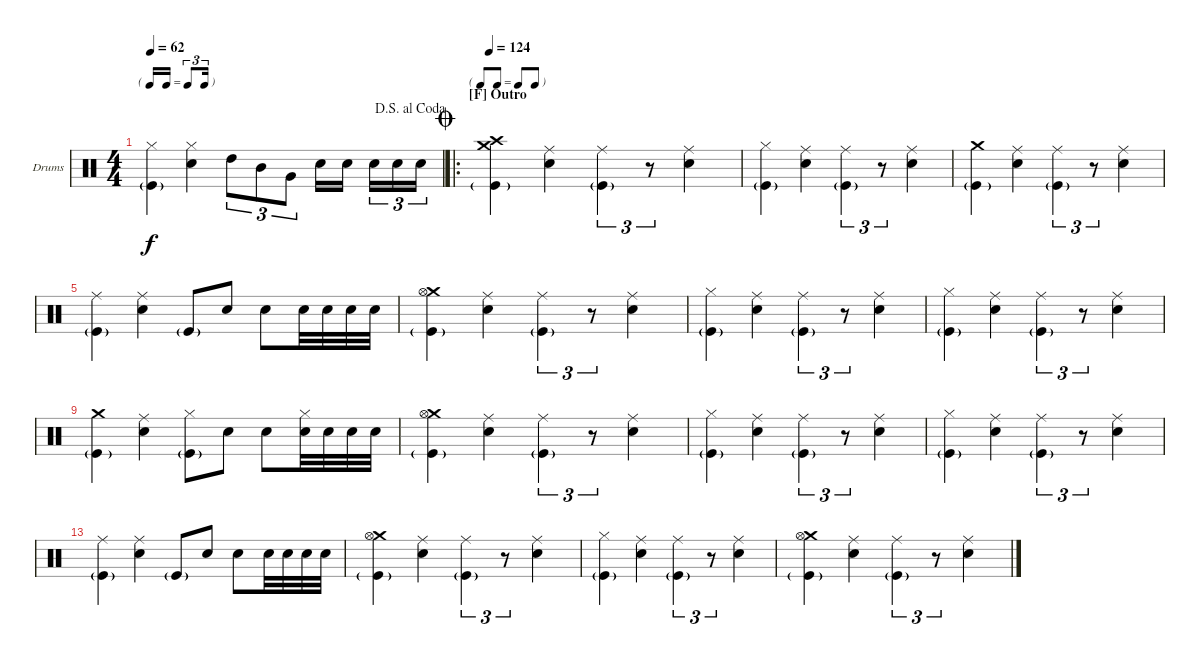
\bracketExtendMode nobrackets
\firstSystemTrackNameOrientation horizontal
\otherSystemsTrackNameOrientation horizontal
\defaultBarNumberDisplay FirstOfSystem
\track ("Drumkit" "Drums") {instrument percussion}
\staff {score}
\articulation defaults
\ts (4 4)
\tf triplet16th
\jump dalsegnoalcoda
\tempo 62
\clef neutral
\ks c
("Kick (hit)"{g} "Hi-Hat (closed)").4{dy f} ("Snare (hit) 2" "Hi-Hat (closed)").4 "High Tom (hit)".8{tu (3 2)} "Mid Tom (hit)".8{tu (3 2)} "Very Low Tom (hit)".8{tu (3 2)} "Snare (hit) 2".16 "Snare (hit) 2".16 "Snare (hit) 2".16{tu (3 2)} "Snare (hit) 2".16{tu (3 2)} "Snare (hit) 2".16{tu (3 2)} |
\ro
\tf none
\section ("F" "Outro")
\jump coda
\tempo 124
("Kick (hit)"{g} "Crash high (hit)" "Crash medium (hit)").4 ("Snare (hit) 2" "Ride (middle)").4 ("Kick (hit)"{g} "Ride (middle)").4{tu (3 2)} r.8{tu (3 2)} ("Snare (hit) 2" "Ride (middle)").4 |
("Kick (hit)"{g} "Hi-Hat (closed)").4 ("Snare (hit) 2" "Ride (middle)").4 ("Kick (hit)"{g} "Ride (middle)").4{tu (3 2)} r.8{tu (3 2)} ("Snare (hit) 2" "Ride (middle)").4 |
("Kick (hit)"{g} "Crash medium (hit)").4 ("Snare (hit) 2" "Ride (middle)").4 ("Kick (hit)"{g} "Ride (middle)").4{tu (3 2)} r.8{tu (3 2)} ("Snare (hit) 2" "Ride (middle)").4 |
("Kick (hit)"{g} "Ride (middle)").4 ("Snare (hit) 2" "Ride (middle)").4 "Kick (hit)"{g}.8 "Snare (hit) 2".8 "Snare (hit) 2".8 "Snare (hit) 2".32 "Snare (hit) 2".32 "Snare (hit) 2".32 "Snare (hit) 2".32 |
("Kick (hit)"{g} "Crash medium (hit)" "Hi-Hat (open)").4 ("Snare (hit) 2" "Ride (middle)").4 ("Kick (hit)"{g} "Ride (middle)").4{tu (3 2)} r.8{tu (3 2)} ("Snare (hit) 2" "Ride (middle)").4 |
("Kick (hit)"{g} "Hi-Hat (closed)").4 ("Snare (hit) 2" "Ride (middle)").4 ("Kick (hit)"{g} "Ride (middle)").4{tu (3 2)} r.8{tu (3 2)} ("Snare (hit) 2" "Ride (middle)").4 |
("Kick (hit)"{g} "Hi-Hat (closed)").4 ("Snare (hit) 2" "Ride (middle)").4 ("Kick (hit)"{g} "Ride (middle)").4{tu (3 2)} r.8{tu (3 2)} ("Snare (hit) 2" "Ride (middle)").4 |
("Kick (hit)"{g} "Crash medium (hit)").4 ("Snare (hit) 2" "Ride (middle)").4 ("Kick (hit)"{g} "Hi-Hat (closed)").8 "Snare (hit) 2".8 "Snare (hit) 2".8 ("Snare (hit) 2" "Hi-Hat (closed)").32 "Snare (hit) 2".32 "Snare (hit) 2".32 "Snare (hit) 2".32 |
("Kick (hit)"{g} "Crash medium (hit)" "Hi-Hat (open)").4 ("Snare (hit) 2" "Ride (middle)").4 ("Kick (hit)"{g} "Ride (middle)").4{tu (3 2)} r.8{tu (3 2)} ("Snare (hit) 2" "Ride (middle)").4 |
("Kick (hit)"{g} "Hi-Hat (closed)").4 ("Snare (hit) 2" "Ride (middle)").4 ("Kick (hit)"{g} "Ride (middle)").4{tu (3 2)} r.8{tu (3 2)} ("Snare (hit) 2" "Ride (middle)").4 |
("Kick (hit)"{g} "Hi-Hat (closed)").4 ("Snare (hit) 2" "Ride (middle)").4 ("Kick (hit)"{g} "Ride (middle)").4{tu (3 2)} r.8{tu (3 2)} ("Snare (hit) 2" "Ride (middle)").4 |
("Kick (hit)"{g} "Ride (middle)").4 ("Snare (hit) 2" "Ride (middle)").4 "Kick (hit)"{g}.8 "Snare (hit) 2".8 "Snare (hit) 2".8 "Snare (hit) 2".32 "Snare (hit) 2".32 "Snare (hit) 2".32 "Snare (hit) 2".32 |
("Kick (hit)"{g} "Crash medium (hit)" "Hi-Hat (open)").4 ("Snare (hit) 2" "Ride (middle)").4 ("Kick (hit)"{g} "Ride (middle)").4{tu (3 2)} r.8{tu (3 2)} ("Snare (hit) 2" "Ride (middle)").4 |
("Kick (hit)"{g} "Hi-Hat (closed)").4 ("Snare (hit) 2" "Ride (middle)").4 ("Kick (hit)"{g} "Ride (middle)").4{tu (3 2)} r.8{tu (3 2)} ("Snare (hit) 2" "Ride (middle)").4 |
("Kick (hit)"{g} "Crash medium (hit)" "Hi-Hat (open)").4 ("Snare (hit) 2" "Ride (middle)").4 ("Kick (hit)"{g} "Ride (middle)").4{tu (3 2)} r.8{tu (3 2)} ("Snare (hit) 2" "Ride (middle)").4
